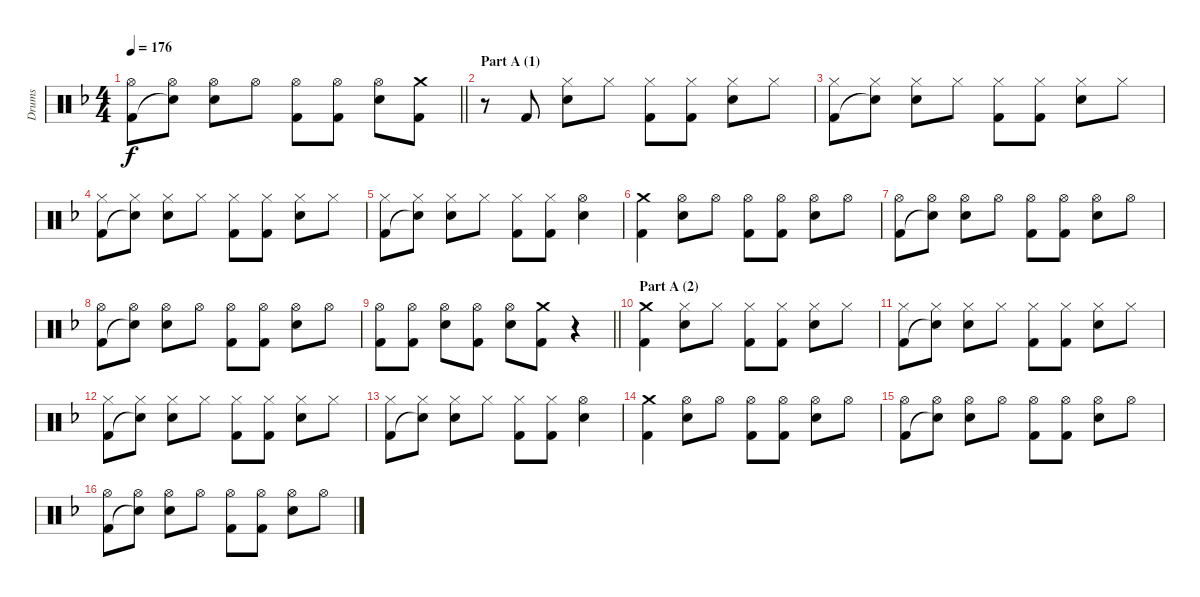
\track ("Drums" "Drums") {instrument percussion}
\staff {score}
\articulation defaults
\ts (4 4)
\tempo 176
\clef neutral
\barLineRight lightlight
\ks f
("Hi-Hat (open)" "Kick (hit) 2").8{dy f} ("Hi-Hat (open)" "Snare (hit)"{t}).8 ("Hi-Hat (open)" "Electric Snare (hit)").8 "Hi-Hat (open)".8 ("Hi-Hat (open)" "Kick (hit) 2").8 ("Hi-Hat (open)" "Kick (hit) 2").8 ("Hi-Hat (open)" "Electric Snare (hit)").8 ("Crash medium (hit)" "Kick (hit) 2").8 |
\section ("" "Part A (1)")
r.8 "Kick (hit) 2".8 ("Hi-Hat (closed)" "Electric Snare (hit)").8 "Hi-Hat (closed)".8 ("Hi-Hat (closed)" "Kick (hit) 2").8 ("Hi-Hat (closed)" "Kick (hit) 2").8 ("Hi-Hat (closed)" "Electric Snare (hit)").8 "Hi-Hat (closed)".8 |
("Hi-Hat (closed)" "Kick (hit) 2").8 ("Hi-Hat (closed)" "Snare (hit)"{t}).8 ("Hi-Hat (closed)" "Electric Snare (hit)").8 "Hi-Hat (closed)".8 ("Hi-Hat (closed)" "Kick (hit) 2").8 ("Hi-Hat (closed)" "Kick (hit) 2").8 ("Hi-Hat (closed)" "Electric Snare (hit)").8 "Hi-Hat (closed)".8 |
("Hi-Hat (closed)" "Kick (hit) 2").8 ("Hi-Hat (closed)" "Snare (hit)"{t}).8 ("Hi-Hat (closed)" "Electric Snare (hit)").8 "Hi-Hat (closed)".8 ("Hi-Hat (closed)" "Kick (hit) 2").8 ("Hi-Hat (closed)" "Kick (hit) 2").8 ("Hi-Hat (closed)" "Electric Snare (hit)").8 "Hi-Hat (closed)".8 |
("Hi-Hat (closed)" "Kick (hit) 2").8 ("Hi-Hat (closed)" "Snare (hit)"{t}).8 ("Hi-Hat (closed)" "Electric Snare (hit)").8 "Hi-Hat (closed)".8 ("Hi-Hat (closed)" "Kick (hit) 2").8 ("Hi-Hat (closed)" "Kick (hit) 2").8 ("Hi-Hat (open)" "Electric Snare (hit)").4 |
("Crash medium (hit)" "Kick (hit) 2").4 ("Hi-Hat (open)" "Electric Snare (hit)").8 "Hi-Hat (open)".8 ("Hi-Hat (open)" "Kick (hit) 2").8 ("Hi-Hat (open)" "Kick (hit) 2").8 ("Hi-Hat (open)" "Electric Snare (hit)").8 "Hi-Hat (open)".8 |
("Hi-Hat (open)" "Kick (hit) 2").8 ("Hi-Hat (open)" "Snare (hit)"{t}).8 ("Hi-Hat (open)" "Electric Snare (hit)").8 "Hi-Hat (open)".8 ("Hi-Hat (open)" "Kick (hit) 2").8 ("Hi-Hat (open)" "Kick (hit) 2").8 ("Hi-Hat (open)" "Electric Snare (hit)").8 "Hi-Hat (open)".8 |
("Hi-Hat (open)" "Kick (hit) 2").8 ("Hi-Hat (open)" "Snare (hit)"{t}).8 ("Hi-Hat (open)" "Electric Snare (hit)").8 "Hi-Hat (open)".8 ("Hi-Hat (open)" "Kick (hit) 2").8 ("Hi-Hat (open)" "Kick (hit) 2").8 ("Hi-Hat (open)" "Electric Snare (hit)").8 "Hi-Hat (open)".8 |
\barLineRight lightlight
("Hi-Hat (open)" "Kick (hit) 2").8 ("Hi-Hat (open)" "Kick (hit) 2").8 ("Hi-Hat (open)" "Electric Snare (hit)").8 ("Hi-Hat (open)" "Kick (hit) 2").8 ("Hi-Hat (open)" "Electric Snare (hit)").8 ("Crash medium (hit)" "Kick (hit) 2").8 r.4 |
\section ("" "Part A (2)")
("Crash medium (hit)" "Kick (hit) 2").4 ("Hi-Hat (closed)" "Electric Snare (hit)").8 "Hi-Hat (closed)".8 ("Hi-Hat (closed)" "Kick (hit) 2").8 ("Hi-Hat (closed)" "Kick (hit) 2").8 ("Hi-Hat (closed)" "Electric Snare (hit)").8 "Hi-Hat (closed)".8 |
("Hi-Hat (closed)" "Kick (hit) 2").8 ("Hi-Hat (closed)" "Snare (hit)"{t}).8 ("Hi-Hat (closed)" "Electric Snare (hit)").8 "Hi-Hat (closed)".8 ("Hi-Hat (closed)" "Kick (hit) 2").8 ("Hi-Hat (closed)" "Kick (hit) 2").8 ("Hi-Hat (closed)" "Electric Snare (hit)").8 "Hi-Hat (closed)".8 |
("Hi-Hat (closed)" "Kick (hit) 2").8 ("Hi-Hat (closed)" "Snare (hit)"{t}).8 ("Hi-Hat (closed)" "Electric Snare (hit)").8 "Hi-Hat (closed)".8 ("Hi-Hat (closed)" "Kick (hit) 2").8 ("Hi-Hat (closed)" "Kick (hit) 2").8 ("Hi-Hat (closed)" "Electric Snare (hit)").8 "Hi-Hat (closed)".8 |
("Hi-Hat (closed)" "Kick (hit) 2").8 ("Hi-Hat (closed)" "Snare (hit)"{t}).8 ("Hi-Hat (closed)" "Electric Snare (hit)").8 "Hi-Hat (closed)".8 ("Hi-Hat (closed)" "Kick (hit) 2").8 ("Hi-Hat (closed)" "Kick (hit) 2").8 ("Hi-Hat (open)" "Electric Snare (hit)").4 |
("Crash medium (hit)" "Kick (hit) 2").4 ("Hi-Hat (open)" "Electric Snare (hit)").8 "Hi-Hat (open)".8 ("Hi-Hat (open)" "Kick (hit) 2").8 ("Hi-Hat (open)" "Kick (hit) 2").8 ("Hi-Hat (open)" "Electric Snare (hit)").8 "Hi-Hat (open)".8 |
("Hi-Hat (open)" "Kick (hit) 2").8 ("Hi-Hat (open)" "Snare (hit)"{t}).8 ("Hi-Hat (open)" "Electric Snare (hit)").8 "Hi-Hat (open)".8 ("Hi-Hat (open)" "Kick (hit) 2").8 ("Hi-Hat (open)" "Kick (hit) 2").8 ("Hi-Hat (open)" "Electric Snare (hit)").8 "Hi-Hat (open)".8 |
("Hi-Hat (open)" "Kick (hit) 2").8 ("Hi-Hat (open)" "Snare (hit)"{t}).8 ("Hi-Hat (open)" "Electric Snare (hit)").8 "Hi-Hat (open)".8 ("Hi-Hat (open)" "Kick (hit) 2").8 ("Hi-Hat (open)" "Kick (hit) 2").8 ("Hi-Hat (open)" "Electric Snare (hit)").8 "Hi-Hat (open)".8
